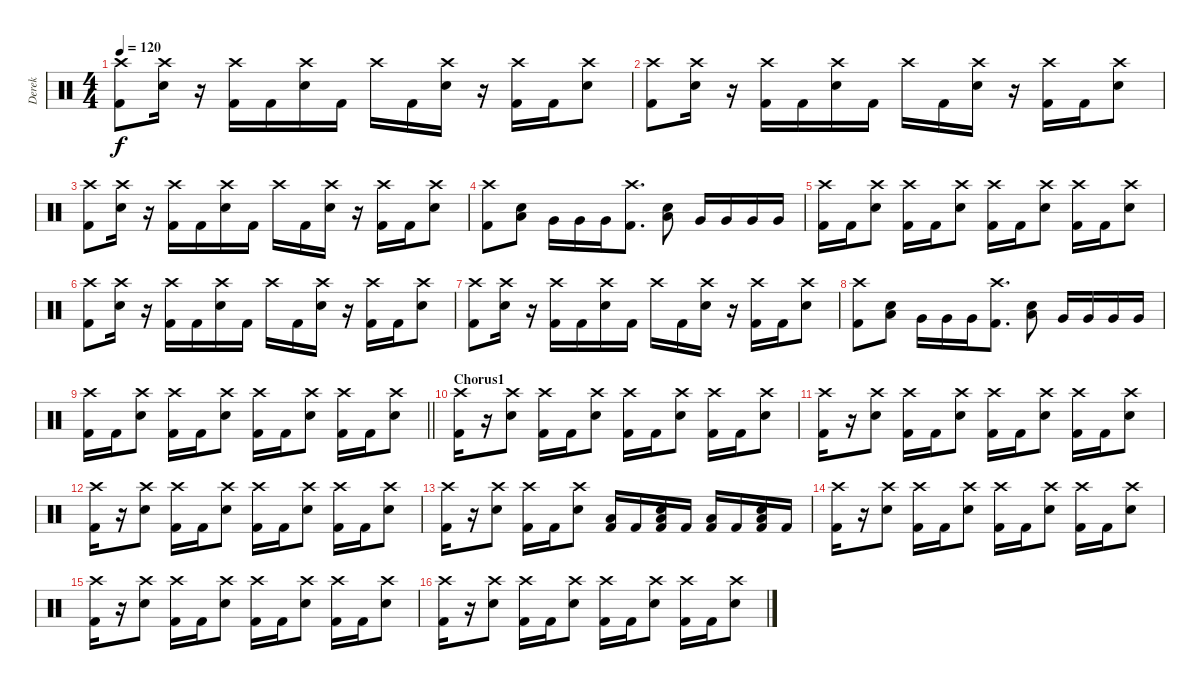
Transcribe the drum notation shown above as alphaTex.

\track ("Derek" "Derek") {instrument percussion}
\staff {score}
\articulation defaults
\ts (4 4)
\tempo 120
\clef neutral
\ks c
("Crash high (hit)" "Kick (hit) 2").8{dy f} ("Crash high (hit)" "Electric Snare (hit)").16 r.16 ("Crash high (hit)" "Kick (hit) 2").16 "Kick (hit) 2".16 ("Crash high (hit)" "Electric Snare (hit)").16 "Kick (hit) 2".16 "Crash high (hit)".16 "Kick (hit) 2".16 ("Crash high (hit)" "Electric Snare (hit)").16 r.16 ("Crash high (hit)" "Kick (hit) 2").16 "Kick (hit) 2".16 ("Crash high (hit)" "Electric Snare (hit)").8 |
("Crash high (hit)" "Kick (hit) 2").8 ("Crash high (hit)" "Electric Snare (hit)").16 r.16 ("Crash high (hit)" "Kick (hit) 2").16 "Kick (hit) 2".16 ("Crash high (hit)" "Electric Snare (hit)").16 "Kick (hit) 2".16 "Crash high (hit)".16 "Kick (hit) 2".16 ("Crash high (hit)" "Electric Snare (hit)").16 r.16 ("Crash high (hit)" "Kick (hit) 2").16 "Kick (hit) 2".16 ("Crash high (hit)" "Electric Snare (hit)").8 |
("Crash high (hit)" "Kick (hit) 2").8 ("Crash high (hit)" "Electric Snare (hit)").16 r.16 ("Crash high (hit)" "Kick (hit) 2").16 "Kick (hit) 2".16 ("Crash high (hit)" "Electric Snare (hit)").16 "Kick (hit) 2".16 "Crash high (hit)".16 "Kick (hit) 2".16 ("Crash high (hit)" "Electric Snare (hit)").16 r.16 ("Crash high (hit)" "Kick (hit) 2").16 "Kick (hit) 2".16 ("Crash high (hit)" "Electric Snare (hit)").8 |
("Crash high (hit)" "Kick (hit) 2").8 ("Electric Snare (hit)" "Low Floor Tom (hit)").8 "Very Low Tom (hit)".16 "Very Low Tom (hit)".16 "Very Low Tom (hit)".16 ("Crash high (hit)" "Kick (hit) 2").8{d} ("Electric Snare (hit)" "Low Floor Tom (hit)").8 "Very Low Tom (hit)".16 "Very Low Tom (hit)".16 "Very Low Tom (hit)".16 "Very Low Tom (hit)".16 |
("Crash high (hit)" "Kick (hit) 2").16 "Kick (hit) 2".16 ("Crash high (hit)" "Electric Snare (hit)").8 ("Crash high (hit)" "Kick (hit) 2").16 "Kick (hit) 2".16 ("Crash high (hit)" "Electric Snare (hit)").8 ("Crash high (hit)" "Kick (hit) 2").16 "Kick (hit) 2".16 ("Crash high (hit)" "Electric Snare (hit)").8 ("Crash high (hit)" "Kick (hit) 2").16 "Kick (hit) 2".16 ("Crash high (hit)" "Electric Snare (hit)").8 |
("Crash high (hit)" "Kick (hit) 2").8 ("Crash high (hit)" "Electric Snare (hit)").16 r.16 ("Crash high (hit)" "Kick (hit) 2").16 "Kick (hit) 2".16 ("Crash high (hit)" "Electric Snare (hit)").16 "Kick (hit) 2".16 "Crash high (hit)".16 "Kick (hit) 2".16 ("Crash high (hit)" "Electric Snare (hit)").16 r.16 ("Crash high (hit)" "Kick (hit) 2").16 "Kick (hit) 2".16 ("Crash high (hit)" "Electric Snare (hit)").8 |
("Crash high (hit)" "Kick (hit) 2").8 ("Crash high (hit)" "Electric Snare (hit)").16 r.16 ("Crash high (hit)" "Kick (hit) 2").16 "Kick (hit) 2".16 ("Crash high (hit)" "Electric Snare (hit)").16 "Kick (hit) 2".16 "Crash high (hit)".16 "Kick (hit) 2".16 ("Crash high (hit)" "Electric Snare (hit)").16 r.16 ("Crash high (hit)" "Kick (hit) 2").16 "Kick (hit) 2".16 ("Crash high (hit)" "Electric Snare (hit)").8 |
("Crash high (hit)" "Kick (hit) 2").8 ("Electric Snare (hit)" "Low Floor Tom (hit)").8 "Very Low Tom (hit)".16 "Very Low Tom (hit)".16 "Very Low Tom (hit)".16 ("Crash high (hit)" "Kick (hit) 2").8{d} ("Electric Snare (hit)" "Low Floor Tom (hit)").8 "Very Low Tom (hit)".16 "Very Low Tom (hit)".16 "Very Low Tom (hit)".16 "Very Low Tom (hit)".16 |
\barLineRight lightlight
("Crash high (hit)" "Kick (hit) 2").16 "Kick (hit) 2".16 ("Crash high (hit)" "Electric Snare (hit)").8 ("Crash high (hit)" "Kick (hit) 2").16 "Kick (hit) 2".16 ("Crash high (hit)" "Electric Snare (hit)").8 ("Crash high (hit)" "Kick (hit) 2").16 "Kick (hit) 2".16 ("Crash high (hit)" "Electric Snare (hit)").8 ("Crash high (hit)" "Kick (hit) 2").16 "Kick (hit) 2".16 ("Crash high (hit)" "Electric Snare (hit)").8 |
\section ("" "Chorus1")
("Crash high (hit)" "Kick (hit) 2").16 r.16 ("Crash high (hit)" "Electric Snare (hit)").8 ("Crash high (hit)" "Kick (hit) 2").16 "Kick (hit) 2".16 ("Crash high (hit)" "Electric Snare (hit)").8 ("Crash high (hit)" "Kick (hit) 2").16 "Kick (hit) 2".16 ("Crash high (hit)" "Electric Snare (hit)").8 ("Crash high (hit)" "Kick (hit) 2").16 "Kick (hit) 2".16 ("Crash high (hit)" "Electric Snare (hit)").8 |
("Crash high (hit)" "Kick (hit) 2").16 r.16 ("Crash high (hit)" "Electric Snare (hit)").8 ("Crash high (hit)" "Kick (hit) 2").16 "Kick (hit) 2".16 ("Crash high (hit)" "Electric Snare (hit)").8 ("Crash high (hit)" "Kick (hit) 2").16 "Kick (hit) 2".16 ("Crash high (hit)" "Electric Snare (hit)").8 ("Crash high (hit)" "Kick (hit) 2").16 "Kick (hit) 2".16 ("Crash high (hit)" "Electric Snare (hit)").8 |
("Crash high (hit)" "Kick (hit) 2").16 r.16 ("Crash high (hit)" "Electric Snare (hit)").8 ("Crash high (hit)" "Kick (hit) 2").16 "Kick (hit) 2".16 ("Crash high (hit)" "Electric Snare (hit)").8 ("Crash high (hit)" "Kick (hit) 2").16 "Kick (hit) 2".16 ("Crash high (hit)" "Electric Snare (hit)").8 ("Crash high (hit)" "Kick (hit) 2").16 "Kick (hit) 2".16 ("Crash high (hit)" "Electric Snare (hit)").8 |
("Crash high (hit)" "Kick (hit) 2").16 r.16 ("Crash high (hit)" "Electric Snare (hit)").8 ("Crash high (hit)" "Kick (hit) 2").16 "Kick (hit) 2".16 ("Crash high (hit)" "Electric Snare (hit)").8 ("Low Floor Tom (hit)" "Kick (hit) 2").16 "Kick (hit) 2".16 ("Low Floor Tom (hit)" "Electric Snare (hit)" "Kick (hit) 2").16 "Kick (hit) 2".16 ("Low Floor Tom (hit)" "Kick (hit) 2").16 "Kick (hit) 2".16 ("Low Floor Tom (hit)" "Electric Snare (hit)" "Kick (hit) 2").16 "Kick (hit) 2".16 |
("Crash high (hit)" "Kick (hit) 2").16 r.16 ("Crash high (hit)" "Electric Snare (hit)").8 ("Crash high (hit)" "Kick (hit) 2").16 "Kick (hit) 2".16 ("Crash high (hit)" "Electric Snare (hit)").8 ("Crash high (hit)" "Kick (hit) 2").16 "Kick (hit) 2".16 ("Crash high (hit)" "Electric Snare (hit)").8 ("Crash high (hit)" "Kick (hit) 2").16 "Kick (hit) 2".16 ("Crash high (hit)" "Electric Snare (hit)").8 |
("Crash high (hit)" "Kick (hit) 2").16 r.16 ("Crash high (hit)" "Electric Snare (hit)").8 ("Crash high (hit)" "Kick (hit) 2").16 "Kick (hit) 2".16 ("Crash high (hit)" "Electric Snare (hit)").8 ("Crash high (hit)" "Kick (hit) 2").16 "Kick (hit) 2".16 ("Crash high (hit)" "Electric Snare (hit)").8 ("Crash high (hit)" "Kick (hit) 2").16 "Kick (hit) 2".16 ("Crash high (hit)" "Electric Snare (hit)").8 |
("Crash high (hit)" "Kick (hit) 2").16 r.16 ("Crash high (hit)" "Electric Snare (hit)").8 ("Crash high (hit)" "Kick (hit) 2").16 "Kick (hit) 2".16 ("Crash high (hit)" "Electric Snare (hit)").8 ("Crash high (hit)" "Kick (hit) 2").16 "Kick (hit) 2".16 ("Crash high (hit)" "Electric Snare (hit)").8 ("Crash high (hit)" "Kick (hit) 2").16 "Kick (hit) 2".16 ("Crash high (hit)" "Electric Snare (hit)").8
